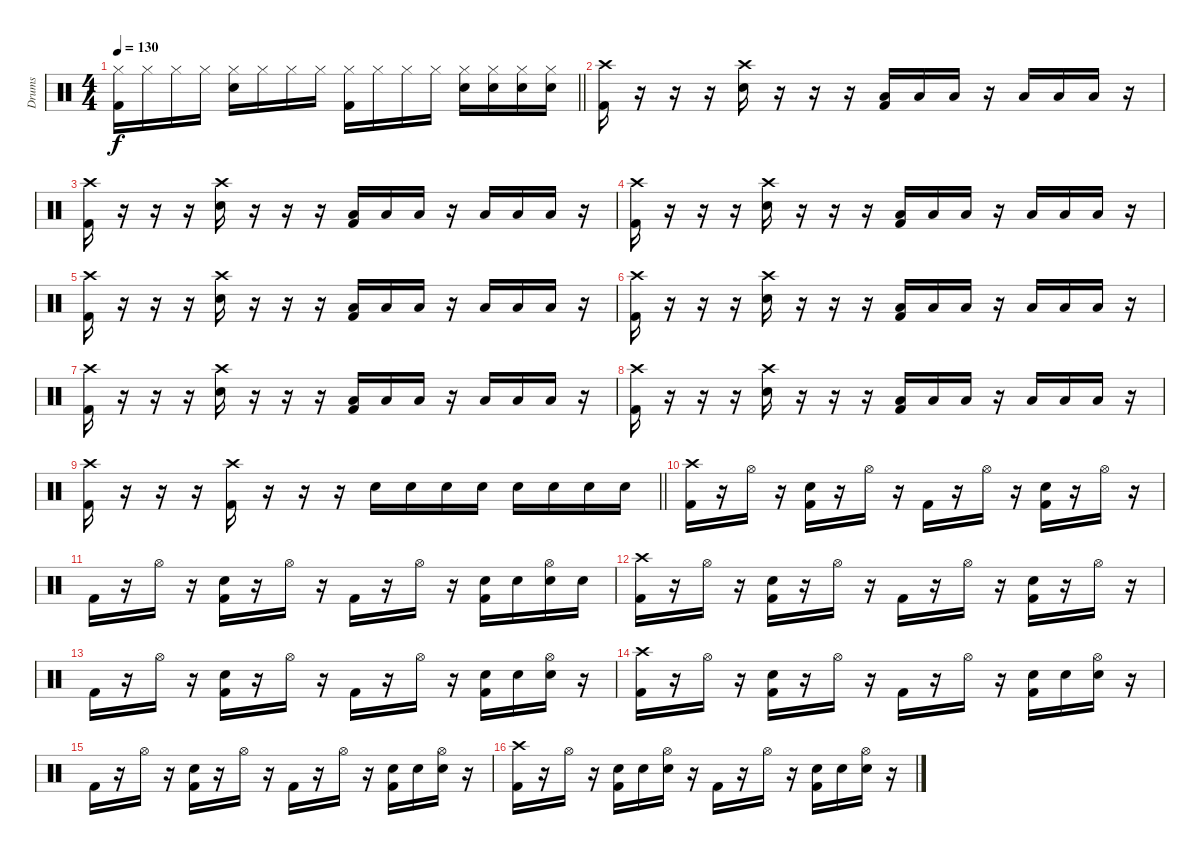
\track ("Drums" "Drums") {instrument percussion}
\staff {score}
\articulation defaults
\ts (4 4)
\tempo 130
\clef neutral
\barLineRight lightlight
\ks c
("Hi-Hat (closed)" "Kick (hit) 2").16{dy f} "Hi-Hat (closed)".16 "Hi-Hat (closed)".16 "Hi-Hat (closed)".16 ("Hi-Hat (closed)" "Electric Snare (hit)").16 "Hi-Hat (closed)".16 "Hi-Hat (closed)".16 "Hi-Hat (closed)".16 ("Hi-Hat (closed)" "Kick (hit) 2").16 "Hi-Hat (closed)".16 "Hi-Hat (closed)".16 "Hi-Hat (closed)".16 ("Hi-Hat (closed)" "Electric Snare (hit)").16 ("Hi-Hat (closed)" "Electric Snare (hit)").16 ("Hi-Hat (closed)" "Electric Snare (hit)").16 ("Hi-Hat (closed)" "Electric Snare (hit)").16 |
\section ("" "")
("Crash high (hit)" "Kick (hit) 2").16 r.16 r.16 r.16 ("Crash high (hit)" "Electric Snare (hit)").16 r.16 r.16 r.16 ("Low Tom (hit)" "Kick (hit) 2").16 "Low Tom (hit)".16 "Low Tom (hit)".16 r.16 "Low Tom (hit)".16 "Low Tom (hit)".16 "Low Tom (hit)".16 r.16 |
("Crash high (hit)" "Kick (hit) 2").16 r.16 r.16 r.16 ("Crash high (hit)" "Electric Snare (hit)").16 r.16 r.16 r.16 ("Low Tom (hit)" "Kick (hit) 2").16 "Low Tom (hit)".16 "Low Tom (hit)".16 r.16 "Low Tom (hit)".16 "Low Tom (hit)".16 "Low Tom (hit)".16 r.16 |
("Crash high (hit)" "Kick (hit) 2").16 r.16 r.16 r.16 ("Crash high (hit)" "Electric Snare (hit)").16 r.16 r.16 r.16 ("Low Tom (hit)" "Kick (hit) 2").16 "Low Tom (hit)".16 "Low Tom (hit)".16 r.16 "Low Tom (hit)".16 "Low Tom (hit)".16 "Low Tom (hit)".16 r.16 |
("Crash high (hit)" "Kick (hit) 2").16 r.16 r.16 r.16 ("Crash high (hit)" "Electric Snare (hit)").16 r.16 r.16 r.16 ("Low Tom (hit)" "Kick (hit) 2").16 "Low Tom (hit)".16 "Low Tom (hit)".16 r.16 "Low Tom (hit)".16 "Low Tom (hit)".16 "Low Tom (hit)".16 r.16 |
("Crash high (hit)" "Kick (hit) 2").16 r.16 r.16 r.16 ("Crash high (hit)" "Electric Snare (hit)").16 r.16 r.16 r.16 ("Low Tom (hit)" "Kick (hit) 2").16 "Low Tom (hit)".16 "Low Tom (hit)".16 r.16 "Low Tom (hit)".16 "Low Tom (hit)".16 "Low Tom (hit)".16 r.16 |
("Crash high (hit)" "Kick (hit) 2").16 r.16 r.16 r.16 ("Crash high (hit)" "Electric Snare (hit)").16 r.16 r.16 r.16 ("Low Tom (hit)" "Kick (hit) 2").16 "Low Tom (hit)".16 "Low Tom (hit)".16 r.16 "Low Tom (hit)".16 "Low Tom (hit)".16 "Low Tom (hit)".16 r.16 |
("Crash high (hit)" "Kick (hit) 2").16 r.16 r.16 r.16 ("Crash high (hit)" "Electric Snare (hit)").16 r.16 r.16 r.16 ("Low Tom (hit)" "Kick (hit) 2").16 "Low Tom (hit)".16 "Low Tom (hit)".16 r.16 "Low Tom (hit)".16 "Low Tom (hit)".16 "Low Tom (hit)".16 r.16 |
\barLineRight lightlight
("Crash high (hit)" "Kick (hit) 2").16 r.16 r.16 r.16 ("Crash high (hit)" "Kick (hit) 2").16 r.16 r.16 r.16 "Electric Snare (hit)".16 "Electric Snare (hit)".16 "Electric Snare (hit)".16 "Electric Snare (hit)".16 "Electric Snare (hit)".16 "Electric Snare (hit)".16 "Electric Snare (hit)".16 "Electric Snare (hit)".16 |
\section ("" "")
("Crash high (hit)" "Kick (hit) 2").16 r.16 "Hi-Hat (open)".16 r.16 ("Electric Snare (hit)" "Kick (hit) 2").16 r.16 "Hi-Hat (open)".16 r.16 "Kick (hit) 2".16 r.16 "Hi-Hat (open)".16 r.16 ("Electric Snare (hit)" "Kick (hit) 2").16 r.16 "Hi-Hat (open)".16 r.16 |
"Kick (hit) 2".16 r.16 "Hi-Hat (open)".16 r.16 ("Electric Snare (hit)" "Kick (hit) 2").16 r.16 "Hi-Hat (open)".16 r.16 "Kick (hit) 2".16 r.16 "Hi-Hat (open)".16 r.16 ("Electric Snare (hit)" "Kick (hit) 2").16 "Electric Snare (hit)".16 ("Hi-Hat (open)" "Electric Snare (hit)").16 "Electric Snare (hit)".16 |
("Crash high (hit)" "Kick (hit) 2").16 r.16 "Hi-Hat (open)".16 r.16 ("Electric Snare (hit)" "Kick (hit) 2").16 r.16 "Hi-Hat (open)".16 r.16 "Kick (hit) 2".16 r.16 "Hi-Hat (open)".16 r.16 ("Electric Snare (hit)" "Kick (hit) 2").16 r.16 "Hi-Hat (open)".16 r.16 |
"Kick (hit) 2".16 r.16 "Hi-Hat (open)".16 r.16 ("Electric Snare (hit)" "Kick (hit) 2").16 r.16 "Hi-Hat (open)".16 r.16 "Kick (hit) 2".16 r.16 "Hi-Hat (open)".16 r.16 ("Electric Snare (hit)" "Kick (hit) 2").16 "Electric Snare (hit)".16 ("Hi-Hat (open)" "Electric Snare (hit)").16 r.16 |
("Crash high (hit)" "Kick (hit) 2").16 r.16 "Hi-Hat (open)".16 r.16 ("Electric Snare (hit)" "Kick (hit) 2").16 r.16 "Hi-Hat (open)".16 r.16 "Kick (hit) 2".16 r.16 "Hi-Hat (open)".16 r.16 ("Electric Snare (hit)" "Kick (hit) 2").16 "Electric Snare (hit)".16 ("Hi-Hat (open)" "Electric Snare (hit)").16 r.16 |
"Kick (hit) 2".16 r.16 "Hi-Hat (open)".16 r.16 ("Electric Snare (hit)" "Kick (hit) 2").16 r.16 "Hi-Hat (open)".16 r.16 "Kick (hit) 2".16 r.16 "Hi-Hat (open)".16 r.16 ("Electric Snare (hit)" "Kick (hit) 2").16 "Electric Snare (hit)".16 ("Hi-Hat (open)" "Electric Snare (hit)").16 r.16 |
("Crash high (hit)" "Kick (hit) 2").16 r.16 "Hi-Hat (open)".16 r.16 ("Electric Snare (hit)" "Kick (hit) 2").16 "Electric Snare (hit)".16 ("Hi-Hat (open)" "Electric Snare (hit)").16 r.16 "Kick (hit) 2".16 r.16 "Hi-Hat (open)".16 r.16 ("Electric Snare (hit)" "Kick (hit) 2").16 "Electric Snare (hit)".16 ("Hi-Hat (open)" "Electric Snare (hit)").16 r.16
